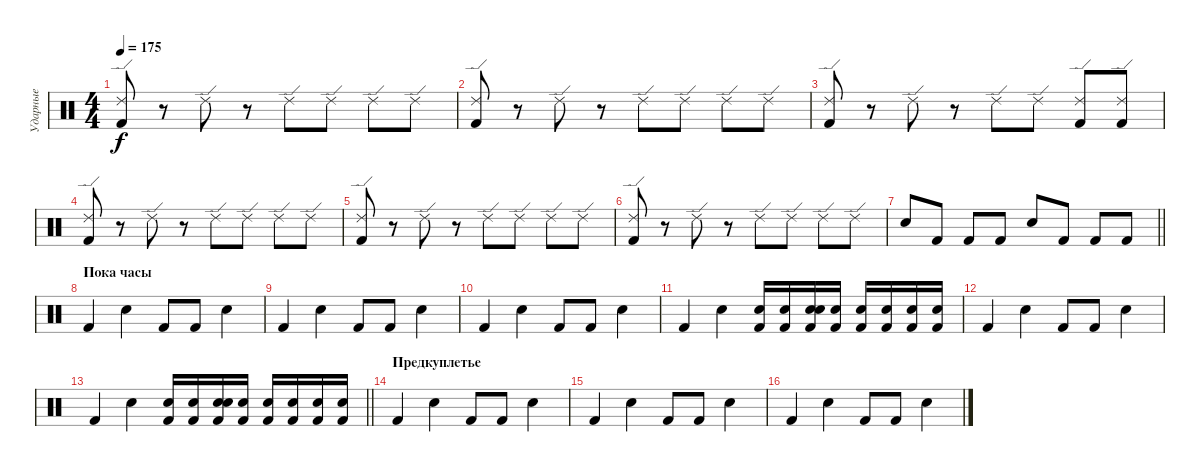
\track ("Ударные" "Ударные") {instrument percussion}
\staff {score}
\articulation defaults
\ts (4 4)
\tempo 175
\clef neutral
\ks c
("Ride (edge) 2" "Kick (hit) 2").8{dy f} r.8 "Ride (edge) 2".8 r.8 "Ride (edge) 2".8 "Ride (edge) 2".8 "Ride (edge) 2".8 "Ride (edge) 2".8 |
("Ride (edge) 2" "Kick (hit) 2").8 r.8 "Ride (edge) 2".8 r.8 "Ride (edge) 2".8 "Ride (edge) 2".8 "Ride (edge) 2".8 "Ride (edge) 2".8 |
("Ride (edge) 2" "Kick (hit) 2").8 r.8 "Ride (edge) 2".8 r.8 "Ride (edge) 2".8 "Ride (edge) 2".8 ("Ride (edge) 2" "Kick (hit) 2").8 ("Ride (edge) 2" "Kick (hit) 2").8 |
("Ride (edge) 2" "Kick (hit) 2").8 r.8 "Ride (edge) 2".8 r.8 "Ride (edge) 2".8 "Ride (edge) 2".8 "Ride (edge) 2".8 "Ride (edge) 2".8 |
("Ride (edge) 2" "Kick (hit) 2").8 r.8 "Ride (edge) 2".8 r.8 "Ride (edge) 2".8 "Ride (edge) 2".8 "Ride (edge) 2".8 "Ride (edge) 2".8 |
("Ride (edge) 2" "Kick (hit) 2").8 r.8 "Ride (edge) 2".8 r.8 "Ride (edge) 2".8 "Ride (edge) 2".8 "Ride (edge) 2".8 "Ride (edge) 2".8 |
\barLineRight lightlight "Electric Snare (hit)".8 "Kick (hit) 2".8 "Kick (hit) 2".8 "Kick (hit) 2".8 "Electric Snare (hit)".8 "Kick (hit) 2".8 "Kick (hit) 2".8 "Kick (hit) 2".8
|
\section ("" "Пока часы")
"Kick (hit) 2".4 "Electric Snare (hit)".4 "Kick (hit) 2".8 "Kick (hit) 2".8 "Electric Snare (hit)".4 |
"Kick (hit) 2".4 "Electric Snare (hit)".4 "Kick (hit) 2".8 "Kick (hit) 2".8 "Electric Snare (hit)".4 |
"Kick (hit) 2".4 "Electric Snare (hit)".4 "Kick (hit) 2".8 "Kick (hit) 2".8 "Electric Snare (hit)".4 |
"Kick (hit) 2".4 "Electric Snare (hit)".4 ("Electric Snare (hit)" "Kick (hit) 2").16 ("Electric Snare (hit)" "Kick (hit) 2").16 ("Snare (hit) 2" "Electric Snare (hit)" "Kick (hit) 2").16 ("Electric Snare (hit)" "Kick (hit) 2").16 ("Electric Snare (hit)" "Kick (hit) 2").16 ("Electric Snare (hit)" "Kick (hit) 2").16 ("Electric Snare (hit)" "Kick (hit) 2").16 ("Electric Snare (hit)" "Kick (hit) 2").16 |
"Kick (hit) 2".4 "Electric Snare (hit)".4 "Kick (hit) 2".8 "Kick (hit) 2".8 "Electric Snare (hit)".4 |
\barLineRight lightlight "Kick (hit) 2".4 "Electric Snare (hit)".4
("Electric Snare (hit)" "Kick (hit) 2").16 ("Electric Snare (hit)" "Kick (hit) 2").16 ("Snare (hit) 2" "Electric Snare (hit)" "Kick (hit) 2").16 ("Electric Snare (hit)" "Kick (hit) 2").16 ("Electric Snare (hit)" "Kick (hit) 2").16 ("Electric Snare (hit)" "Kick (hit) 2").16 ("Electric Snare (hit)" "Kick (hit) 2").16 ("Electric Snare (hit)" "Kick (hit) 2").16 |
\section ("" "Предкуплетье")
"Kick (hit) 2".4 "Electric Snare (hit)".4 "Kick (hit) 2".8 "Kick (hit) 2".8 "Electric Snare (hit)".4 |
"Kick (hit) 2".4 "Electric Snare (hit)".4 "Kick (hit) 2".8 "Kick (hit) 2".8 "Electric Snare (hit)".4 |
"Kick (hit) 2".4 "Electric Snare (hit)".4 "Kick (hit) 2".8 "Kick (hit) 2".8 "Electric Snare (hit)".4
